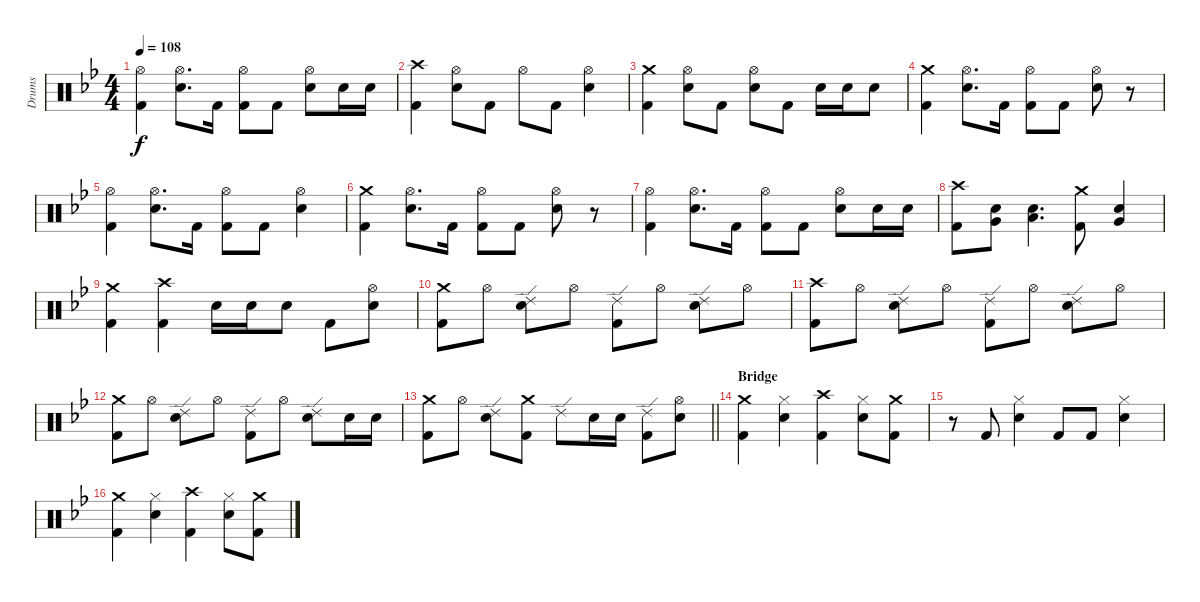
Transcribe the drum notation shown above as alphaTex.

\track ("Drums" "Drums") {instrument percussion}
\staff {score}
\articulation defaults
\ts (4 4)
\tempo 108
\clef neutral
\ks gminor
("Hi-Hat (open)" "Kick (hit) 2").4{dy f} ("Hi-Hat (open)" "Snare (hit) 2").8{d} "Kick (hit) 2".16 ("Hi-Hat (open)" "Kick (hit) 2").8 "Kick (hit) 2".8 ("Hi-Hat (open)" "Snare (hit) 2").8 "Snare (hit) 2".16 "Snare (hit) 2".16 |
("Crash high (hit)" "Kick (hit) 2").4 ("Hi-Hat (open)" "Snare (hit) 2").8 "Kick (hit) 2".8 "Hi-Hat (open)".8 "Kick (hit) 2".8 ("Hi-Hat (open)" "Snare (hit) 2").4 |
("Crash medium (hit)" "Kick (hit) 2").4 ("Hi-Hat (open)" "Snare (hit) 2").8 "Kick (hit) 2".8 ("Hi-Hat (open)" "Snare (hit) 2").8 "Kick (hit) 2".8 "Snare (hit) 2".16 "Snare (hit) 2".16 "Snare (hit) 2".8 |
("Crash medium (hit)" "Kick (hit) 2").4 ("Hi-Hat (open)" "Snare (hit) 2").8{d} "Kick (hit) 2".16 ("Hi-Hat (open)" "Kick (hit) 2").8 "Kick (hit) 2".8 ("Hi-Hat (open)" "Snare (hit) 2").8 r.8 |
("Hi-Hat (open)" "Kick (hit) 2").4 ("Hi-Hat (open)" "Snare (hit) 2").8{d} "Kick (hit) 2".16 ("Hi-Hat (open)" "Kick (hit) 2").8 "Kick (hit) 2".8 ("Hi-Hat (open)" "Snare (hit) 2").4 |
("Crash medium (hit)" "Kick (hit) 2").4 ("Hi-Hat (open)" "Snare (hit) 2").8{d} "Kick (hit) 2".16 ("Hi-Hat (open)" "Kick (hit) 2").8 "Kick (hit) 2".8 ("Hi-Hat (open)" "Snare (hit) 2").8 r.8 |
("Hi-Hat (open)" "Kick (hit) 2").4 ("Hi-Hat (open)" "Snare (hit) 2").8{d} "Kick (hit) 2".16 ("Hi-Hat (open)" "Kick (hit) 2").8 "Kick (hit) 2".8 ("Hi-Hat (open)" "Snare (hit) 2").8 "Snare (hit) 2".16 "Snare (hit) 2".16 |
("Crash high (hit)" "Kick (hit) 2").8 ("Snare (hit) 2" "Very Low Tom (hit)").8 ("Snare (hit) 2" "Low Floor Tom (hit)").4{d} ("Crash medium (hit)" "Kick (hit) 2").8 ("Snare (hit) 2" "Very Low Tom (hit)").4 |
("Crash medium (hit)" "Kick (hit) 2").4 ("Crash high (hit)" "Kick (hit) 2").4 "Snare (hit) 2".16 "Snare (hit) 2".16 "Snare (hit) 2".8 "Kick (hit) 2".8 ("Hi-Hat (open)" "Snare (hit) 2").8 |
("Crash medium (hit)" "Kick (hit) 2").8 "Hi-Hat (open)".8 ("Ride (edge) 2" "Snare (hit) 2").8 "Hi-Hat (open)".8 ("Ride (edge) 2" "Kick (hit) 2").8 "Hi-Hat (open)".8 ("Ride (edge) 2" "Snare (hit) 2").8 "Hi-Hat (open)".8 |
("Crash high (hit)" "Kick (hit) 2").8 "Hi-Hat (open)".8 ("Ride (edge) 2" "Snare (hit) 2").8 "Hi-Hat (open)".8 ("Ride (edge) 2" "Kick (hit) 2").8 "Hi-Hat (open)".8 ("Ride (edge) 2" "Snare (hit) 2").8 "Hi-Hat (open)".8 |
("Crash medium (hit)" "Kick (hit) 2").8 "Hi-Hat (open)".8 ("Ride (edge) 2" "Snare (hit) 2").8 "Hi-Hat (open)".8 ("Ride (edge) 2" "Kick (hit) 2").8 "Hi-Hat (open)".8 ("Ride (edge) 2" "Snare (hit) 2").8 "Snare (hit) 2".16 "Snare (hit) 2".16 |
\barLineRight lightlight
("Crash medium (hit)" "Kick (hit) 2").8 "Hi-Hat (open)".8 ("Ride (edge) 2" "Snare (hit) 2").8 ("Crash medium (hit)" "Kick (hit) 2").8 "Ride (edge) 2".8 "Snare (hit) 2".16 "Snare (hit) 2".16 ("Ride (edge) 2" "Kick (hit) 2").8 ("Hi-Hat (open)" "Snare (hit) 2").8 |
\section ("" "Bridge")
("Crash medium (hit)" "Kick (hit) 2").4 ("Hi-Hat (closed)" "Snare (hit) 2").4 ("Crash high (hit)" "Kick (hit) 2").4 ("Hi-Hat (closed)" "Snare (hit) 2").8 ("Crash medium (hit)" "Kick (hit) 2").8 |
r.8 "Kick (hit) 2".8 ("Hi-Hat (closed)" "Snare (hit) 2").4 "Kick (hit) 2".8 "Kick (hit) 2".8 ("Hi-Hat (closed)" "Snare (hit) 2").4 |
("Crash medium (hit)" "Kick (hit) 2").4 ("Hi-Hat (closed)" "Snare (hit) 2").4 ("Crash high (hit)" "Kick (hit) 2").4 ("Hi-Hat (closed)" "Snare (hit) 2").8 ("Crash medium (hit)" "Kick (hit) 2").8
